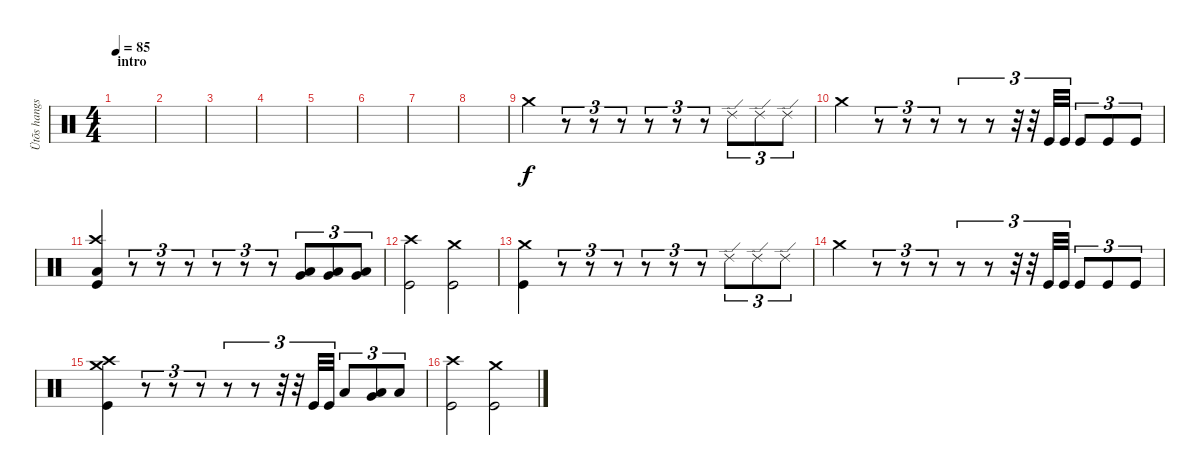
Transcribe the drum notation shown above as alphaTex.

\track ("Ütõs hangszer" "Ütõs hangs") {instrument percussion}
\staff {score}
\articulation defaults
\ts (4 4)
\section ("" "intro")
\tempo 85
\clef neutral
\ks c
|
|
|
|
|
|
|
|
"Crash medium (hit)".4 r.8{tu (3 2)} r.8{tu (3 2)} r.8{tu (3 2)} r.8{tu (3 2)} r.8{tu (3 2)} r.8{tu (3 2)} "Ride (edge) 2".8{tu (3 2)} "Ride (edge) 2".8{tu (3 2)} "Ride (edge) 2".8{tu (3 2)} |
"Crash medium (hit)".4 r.8{tu (3 2)} r.8{tu (3 2)} r.8{tu (3 2)} r.8{tu (3 2)} r.8{tu (3 2)} r.32{tu (3 2)} r.32{tu (3 2)} "Kick (hit)".32{tu (3 2)} "Kick (hit)".32{tu (3 2)} "Kick (hit)".8{tu (3 2)} "Kick (hit)".8{tu (3 2)} "Kick (hit)".8{tu (3 2)} |
("Crash high (hit)" "Low Floor Tom (hit)" "Kick (hit)").4 r.8{tu (3 2)} r.8{tu (3 2)} r.8{tu (3 2)} r.8{tu (3 2)} r.8{tu (3 2)} r.8{tu (3 2)} ("Very Low Tom (hit)" "Low Floor Tom (hit)").8{tu (3 2)} ("Very Low Tom (hit)" "Low Floor Tom (hit)").8{tu (3 2)} ("Very Low Tom (hit)" "Low Floor Tom (hit)").8{tu (3 2)} |
("Crash high (hit)" "Kick (hit)").2 ("Crash medium (hit)" "Kick (hit)").2 |
("Crash medium (hit)" "Kick (hit)").4 r.8{tu (3 2)} r.8{tu (3 2)} r.8{tu (3 2)} r.8{tu (3 2)} r.8{tu (3 2)} r.8{tu (3 2)} "Ride (edge) 2".8{tu (3 2)} "Ride (edge) 2".8{tu (3 2)} "Ride (edge) 2".8{tu (3 2)} |
"Crash medium (hit)".4 r.8{tu (3 2)} r.8{tu (3 2)} r.8{tu (3 2)} r.8{tu (3 2)} r.8{tu (3 2)} r.32{tu (3 2)} r.32{tu (3 2)} "Kick (hit)".32{tu (3 2)} "Kick (hit)".32{tu (3 2)} "Kick (hit)".8{tu (3 2)} "Kick (hit)".8{tu (3 2)} "Kick (hit)".8{tu (3 2)} |
("Crash medium (hit)" "Crash high (hit)" "Kick (hit)").4 r.8{tu (3 2)} r.8{tu (3 2)} r.8{tu (3 2)} r.8{tu (3 2)} r.8{tu (3 2)} r.32{tu (3 2)} r.32{tu (3 2)} "Kick (hit)".32{tu (3 2)} "Kick (hit)".32{tu (3 2)} "Low Tom (hit)".8{tu (3 2)} ("Very Low Tom (hit)" "Low Floor Tom (hit)").8{tu (3 2)} "Low Floor Tom (hit)".8{tu (3 2)} |
("Crash high (hit)" "Kick (hit)").2 ("Crash medium (hit)" "Kick (hit)").2
